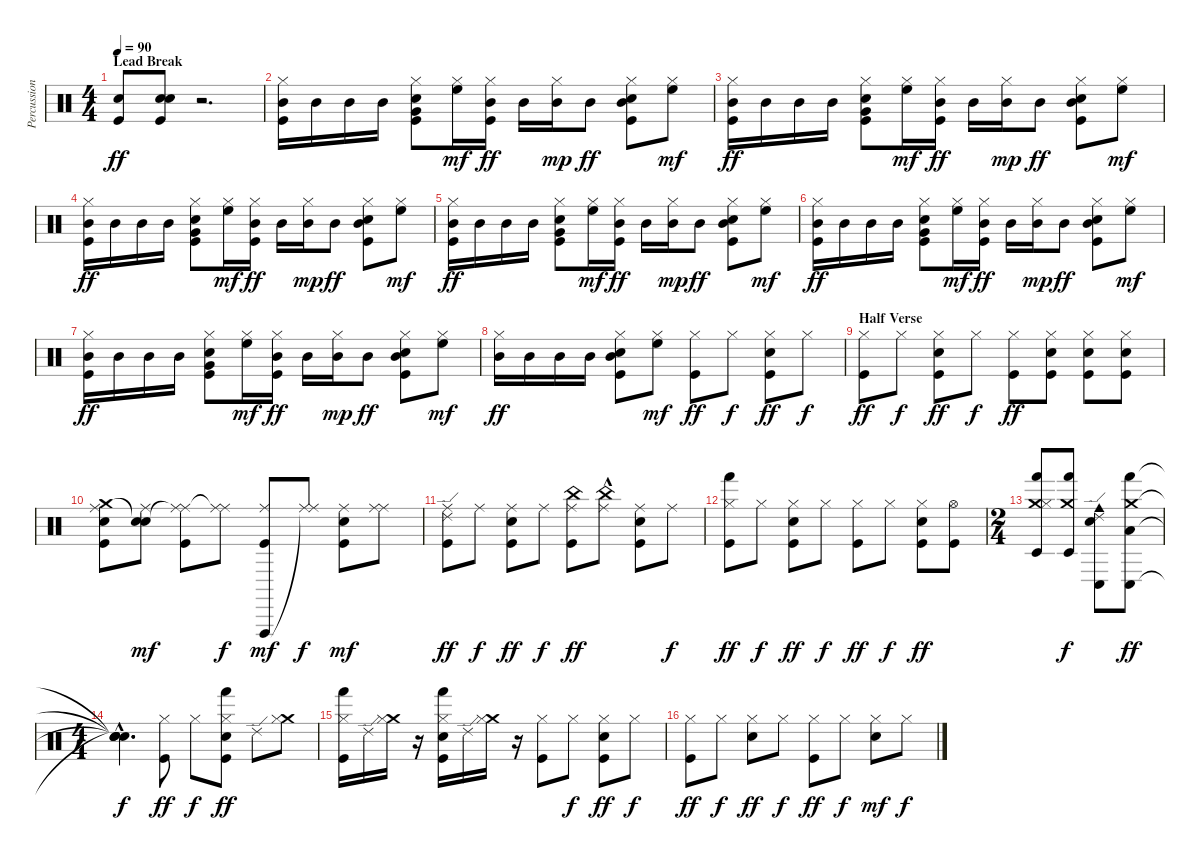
\track ("Percussion" "Percussion") {instrument percussion}
\staff {score}
\articulation defaults
\ts (4 4)
\section ("" "Lead Break")
\tempo 90
\clef neutral
\ks c
("Snare (hit) 2" "Kick (hit)").8{dy ff} ("Hand Clap (hit)" "Snare (hit) 2" "Kick (hit)").8 r.2{d} |
("Mid Tom (hit)" "Hi-Hat (closed)" "Kick (hit)").16 "Mid Tom (hit)".16 "Mid Tom (hit)".16 "Mid Tom (hit)".16 ("Very Low Tom (hit)" "Hi-Hat (closed)" "Snare (hit) 2" "Kick (hit)").8 ("High Floor Tom (hit)" "Hi-Hat (closed)").16{dy mf} ("Mid Tom (hit)" "Hi-Hat (closed)" "Kick (hit)").16{dy ff} "Mid Tom (hit)".16 ("Mid Tom (hit)" "Hi-Hat (closed)").16{dy mp} "Mid Tom (hit)".8{dy ff} ("Mid Tom (hit)" "Hi-Hat (closed)" "Snare (hit) 2" "Kick (hit)").8 ("High Floor Tom (hit)" "Hi-Hat (closed)").8{dy mf} |
("Mid Tom (hit)" "Hi-Hat (closed)" "Kick (hit)").16{dy ff} "Mid Tom (hit)".16 "Mid Tom (hit)".16 "Mid Tom (hit)".16 ("Very Low Tom (hit)" "Hi-Hat (closed)" "Snare (hit) 2" "Kick (hit)").8 ("High Floor Tom (hit)" "Hi-Hat (closed)").16{dy mf} ("Mid Tom (hit)" "Hi-Hat (closed)" "Kick (hit)").16{dy ff} "Mid Tom (hit)".16 ("Mid Tom (hit)" "Hi-Hat (closed)").16{dy mp} "Mid Tom (hit)".8{dy ff} ("Mid Tom (hit)" "Hi-Hat (closed)" "Snare (hit) 2" "Kick (hit)").8 ("High Floor Tom (hit)" "Hi-Hat (closed)").8{dy mf} |
("Mid Tom (hit)" "Hi-Hat (closed)" "Kick (hit)").16{dy ff} "Mid Tom (hit)".16 "Mid Tom (hit)".16 "Mid Tom (hit)".16 ("Very Low Tom (hit)" "Hi-Hat (closed)" "Snare (hit) 2" "Kick (hit)").8 ("High Floor Tom (hit)" "Hi-Hat (closed)").16{dy mf} ("Mid Tom (hit)" "Hi-Hat (closed)" "Kick (hit)").16{dy ff} "Mid Tom (hit)".16 ("Mid Tom (hit)" "Hi-Hat (closed)").16{dy mp} "Mid Tom (hit)".8{dy ff} ("Mid Tom (hit)" "Hi-Hat (closed)" "Snare (hit) 2" "Kick (hit)").8 ("High Floor Tom (hit)" "Hi-Hat (closed)").8{dy mf} |
("Mid Tom (hit)" "Hi-Hat (closed)" "Kick (hit)").16{dy ff} "Mid Tom (hit)".16 "Mid Tom (hit)".16 "Mid Tom (hit)".16 ("Very Low Tom (hit)" "Hi-Hat (closed)" "Snare (hit) 2" "Kick (hit)").8 ("High Floor Tom (hit)" "Hi-Hat (closed)").16{dy mf} ("Mid Tom (hit)" "Hi-Hat (closed)" "Kick (hit)").16{dy ff} "Mid Tom (hit)".16 ("Mid Tom (hit)" "Hi-Hat (closed)").16{dy mp} "Mid Tom (hit)".8{dy ff} ("Mid Tom (hit)" "Hi-Hat (closed)" "Snare (hit) 2" "Kick (hit)").8 ("High Floor Tom (hit)" "Hi-Hat (closed)").8{dy mf} |
("Mid Tom (hit)" "Hi-Hat (closed)" "Kick (hit)").16{dy ff} "Mid Tom (hit)".16 "Mid Tom (hit)".16 "Mid Tom (hit)".16 ("Very Low Tom (hit)" "Hi-Hat (closed)" "Snare (hit) 2" "Kick (hit)").8 ("High Floor Tom (hit)" "Hi-Hat (closed)").16{dy mf} ("Mid Tom (hit)" "Hi-Hat (closed)" "Kick (hit)").16{dy ff} "Mid Tom (hit)".16 ("Mid Tom (hit)" "Hi-Hat (closed)").16{dy mp} "Mid Tom (hit)".8{dy ff} ("Mid Tom (hit)" "Hi-Hat (closed)" "Snare (hit) 2" "Kick (hit)").8 ("High Floor Tom (hit)" "Hi-Hat (closed)").8{dy mf} |
("Mid Tom (hit)" "Hi-Hat (closed)" "Kick (hit)").16{dy ff} "Mid Tom (hit)".16 "Mid Tom (hit)".16 "Mid Tom (hit)".16 ("Very Low Tom (hit)" "Hi-Hat (closed)" "Snare (hit) 2" "Kick (hit)").8 ("High Floor Tom (hit)" "Hi-Hat (closed)").16{dy mf} ("Mid Tom (hit)" "Hi-Hat (closed)" "Kick (hit)").16{dy ff} "Mid Tom (hit)".16 ("Mid Tom (hit)" "Hi-Hat (closed)").16{dy mp} "Mid Tom (hit)".8{dy ff} ("Mid Tom (hit)" "Hi-Hat (closed)" "Snare (hit) 2" "Kick (hit)").8 ("High Floor Tom (hit)" "Hi-Hat (closed)").8{dy mf} |
("Mid Tom (hit)" "Hi-Hat (closed)").16{dy ff} "Mid Tom (hit)".16 "Mid Tom (hit)".16 "Mid Tom (hit)".16 ("Mid Tom (hit)" "Hi-Hat (closed)" "Snare (hit) 2" "Kick (hit)").8 ("High Floor Tom (hit)" "Hi-Hat (closed)").8{dy mf} ("Hi-Hat (closed)" "Kick (hit)").8{dy ff} "Hi-Hat (closed)".8{dy f} ("Hi-Hat (closed)" "Snare (hit) 2" "Kick (hit)").8{dy ff} "Hi-Hat (closed)".8{dy f} |
\section ("" "Half Verse")
("Hi-Hat (closed)" "Kick (hit)").8{dy ff} "Hi-Hat (closed)".8{dy f} ("Hi-Hat (closed)" "Snare (hit) 2" "Kick (hit)").8{dy ff} "Hi-Hat (closed)".8{dy f} ("Hi-Hat (closed)" "Kick (hit)").8{dy ff} ("Hi-Hat (closed)" "Snare (hit) 2" "Kick (hit)").8 ("Hi-Hat (closed)" "Snare (hit) 2" "Kick (hit)").8 ("Hi-Hat (closed)" "Snare (hit) 2" "Kick (hit)").8 |
("Crash medium (hit)" "Ride (middle)" "Snare (hit) 2" "Kick (hit)").8 ("Hand Clap (hit)"{t} "Ride (middle)" "Hand Clap (hit)").8{dy mf} ("Ride (middle)"{t} "Ride (middle)" "Kick (hit)").8 ("Ride (middle)"{t} "Ride (middle)").8{dy f} ("Vibraslap (hit)" "Ride (middle)" "Kick (hit)").8{dy mf} ("Ride (middle)"{t} "Ride (middle)").8{dy f} ("Ride (middle)" "Snare (hit) 2" "Kick (hit)").8{dy mf} ("Ride (middle)" "Ride (middle)").8 |
("Ride (edge) 2" "Ride (middle)" "Kick (hit)").8{dy ff} "Ride (middle)".8{dy f} ("Ride (middle)" "Snare (hit) 2" "Kick (hit)").8{dy ff} "Ride (middle)".8{dy f} ("China (hit)" "Ride (middle)" "Kick (hit)").8{dy ff} ("China (hit)" "Ride (middle)"{hac}).8 ("Ride (middle)" "Snare (hit) 2" "Kick (hit)").8 "Ride (middle)".8{dy f} |
("Hand (hit)" "Hi-Hat (closed)" "Kick (hit)").8{dy ff} "Hi-Hat (closed)".8{dy f} ("Hi-Hat (closed)" "Snare (hit) 2" "Kick (hit)").8{dy ff} "Hi-Hat (closed)".8{dy f} ("Hi-Hat (closed)" "Kick (hit)").8{dy ff} "Hi-Hat (closed)".8{dy f} ("Hi-Hat (closed)" "Snare (hit) 2" "Kick (hit)").8{dy ff} ("Hi-Hat (open)" "Kick (hit)").8 |
\ts (2 4)
("Timbale low (hit)" "Hand (hit)" "Crash medium (hit)" "Hi-Hat (closed)").8 ("Timbale low (hit)" "Hand (hit)" "Crash medium (hit)").8{dy f} ("Conga low (hit)" "Ride (edge) 2" "Cowbell medium (hit)" "Snare (hit) 2").8 ("Conga low (hit)" "Hand (hit)" "Crash medium (hit)" "Low Tom (hit)").8{dy ff} |
\ts (4 4)
("Snare (hit)"{hac t} "Snare (hit)"{hac t} "Snare (hit)"{hac t} "Snare (hit)"{hac t}).4{d dy f} ("Hi-Hat (closed)" "Kick (hit)").8{dy ff} "Hi-Hat (closed)".8{dy f} ("Hand (hit)" "Hi-Hat (closed)" "Snare (hit) 2" "Kick (hit)").8{dy ff} "Ride (edge) 2".8 ("Crash medium (hit)" "Hi-Hat (closed)").8 |
("Hand (hit)" "Hi-Hat (closed)" "Kick (hit)").16 "Ride (edge) 2".16 ("Crash medium (hit)" "Hi-Hat (closed)").16 r.16 ("Hand (hit)" "Hi-Hat (closed)" "Snare (hit) 2" "Kick (hit)").16 "Ride (edge) 2".16 ("Crash medium (hit)" "Hi-Hat (closed)").16 r.16 ("Hi-Hat (closed)" "Kick (hit)").8 "Hi-Hat (closed)".8{dy f} ("Hi-Hat (closed)" "Snare (hit) 2" "Kick (hit)").8{dy ff} "Hi-Hat (closed)".8{dy f} |
("Hi-Hat (closed)" "Kick (hit)").8{dy ff} "Hi-Hat (closed)".8{dy f} ("Hi-Hat (closed)" "Snare (hit) 2").8{dy ff} "Hi-Hat (closed)".8{dy f} ("Hi-Hat (closed)" "Kick (hit)").8{dy ff} "Hi-Hat (closed)".8{dy f} ("Hi-Hat (closed)" "Snare (hit) 2").8{dy mf} "Hi-Hat (closed)".8{dy f}
